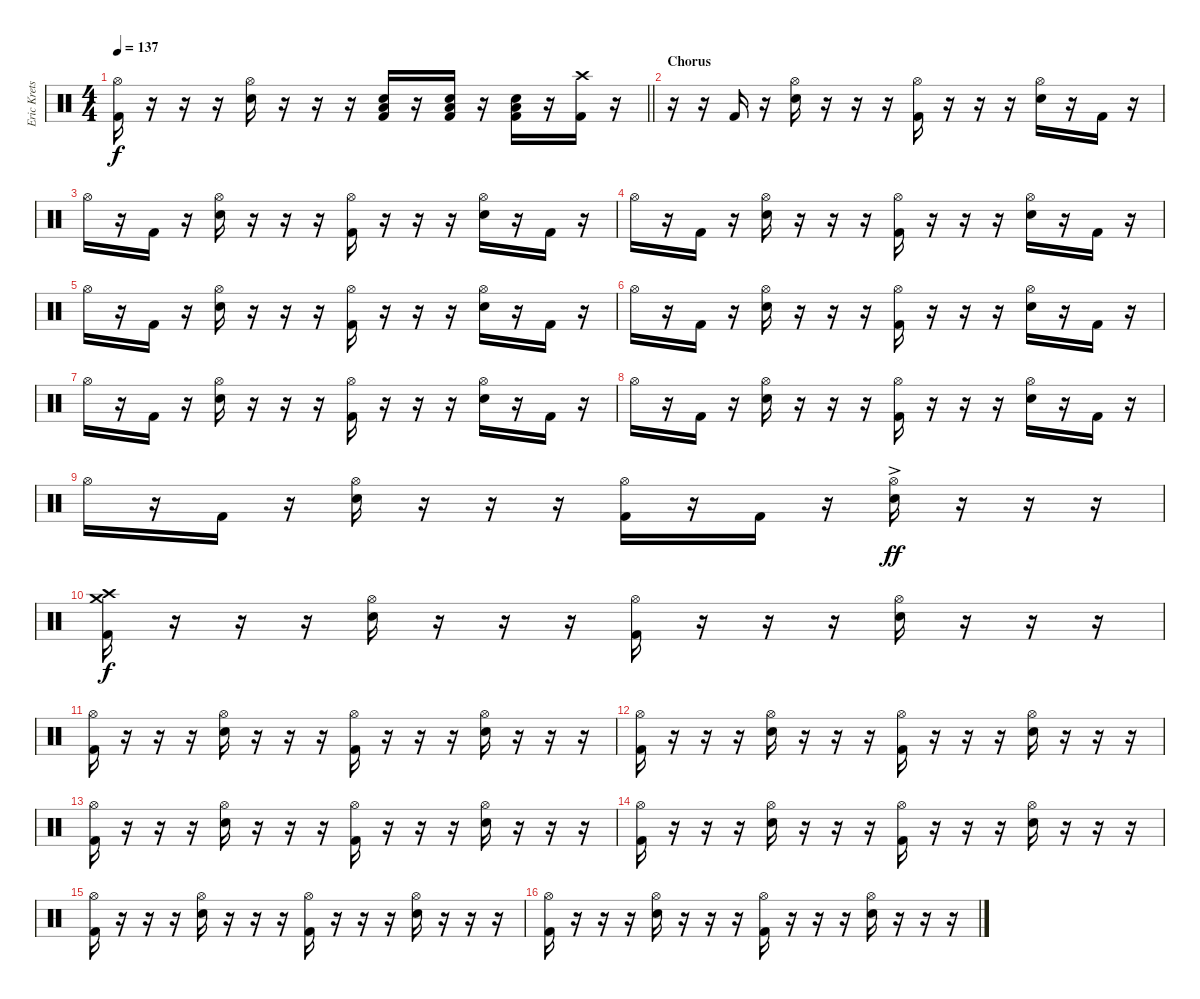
\track ("Eric Krets" "Eric Krets") {instrument percussion}
\staff {score}
\articulation defaults
\ts (4 4)
\tempo 137
\clef neutral
\barLineRight lightlight
\ks c
("Hi-Hat (open)" "Kick (hit) 2").16{dy f} r.16 r.16 r.16 ("Hi-Hat (open)" "Electric Snare (hit)").16 r.16 r.16 r.16 ("Low Tom (hit)" "Electric Snare (hit)" "Kick (hit) 2").16 r.16 ("Low Tom (hit)" "Electric Snare (hit)" "Kick (hit) 2").16 r.16 ("Low Tom (hit)" "Electric Snare (hit)" "Kick (hit) 2").16 r.16 ("Crash high (hit)" "Kick (hit) 2").16 r.16 |
\section ("" "Chorus")
r.16 r.16 "Kick (hit) 2".16 r.16 ("Hi-Hat (open)" "Electric Snare (hit)").16 r.16 r.16 r.16 ("Hi-Hat (open)" "Kick (hit) 2").16 r.16 r.16 r.16 ("Hi-Hat (open)" "Electric Snare (hit)").16 r.16 "Kick (hit) 2".16 r.16 |
"Hi-Hat (open)".16 r.16 "Kick (hit) 2".16 r.16 ("Hi-Hat (open)" "Electric Snare (hit)").16 r.16 r.16 r.16 ("Hi-Hat (open)" "Kick (hit) 2").16 r.16 r.16 r.16 ("Hi-Hat (open)" "Electric Snare (hit)").16 r.16 "Kick (hit) 2".16 r.16 |
"Hi-Hat (open)".16 r.16 "Kick (hit) 2".16 r.16 ("Hi-Hat (open)" "Electric Snare (hit)").16 r.16 r.16 r.16 ("Hi-Hat (open)" "Kick (hit) 2").16 r.16 r.16 r.16 ("Hi-Hat (open)" "Electric Snare (hit)").16 r.16 "Kick (hit) 2".16 r.16 |
"Hi-Hat (open)".16 r.16 "Kick (hit) 2".16 r.16 ("Hi-Hat (open)" "Electric Snare (hit)").16 r.16 r.16 r.16 ("Hi-Hat (open)" "Kick (hit) 2").16 r.16 r.16 r.16 ("Hi-Hat (open)" "Electric Snare (hit)").16 r.16 "Kick (hit) 2".16 r.16 |
"Hi-Hat (open)".16 r.16 "Kick (hit) 2".16 r.16 ("Hi-Hat (open)" "Electric Snare (hit)").16 r.16 r.16 r.16 ("Hi-Hat (open)" "Kick (hit) 2").16 r.16 r.16 r.16 ("Hi-Hat (open)" "Electric Snare (hit)").16 r.16 "Kick (hit) 2".16 r.16 |
"Hi-Hat (open)".16 r.16 "Kick (hit) 2".16 r.16 ("Hi-Hat (open)" "Electric Snare (hit)").16 r.16 r.16 r.16 ("Hi-Hat (open)" "Kick (hit) 2").16 r.16 r.16 r.16 ("Hi-Hat (open)" "Electric Snare (hit)").16 r.16 "Kick (hit) 2".16 r.16 |
"Hi-Hat (open)".16 r.16 "Kick (hit) 2".16 r.16 ("Hi-Hat (open)" "Electric Snare (hit)").16 r.16 r.16 r.16 ("Hi-Hat (open)" "Kick (hit) 2").16 r.16 r.16 r.16 ("Hi-Hat (open)" "Electric Snare (hit)").16 r.16 "Kick (hit) 2".16 r.16 |
"Hi-Hat (open)".16 r.16 "Kick (hit) 2".16 r.16 ("Hi-Hat (open)" "Electric Snare (hit)").16 r.16 r.16 r.16 ("Hi-Hat (open)" "Kick (hit) 2").16 r.16 "Kick (hit) 2".16 r.16 ("Hi-Hat (open)" "Electric Snare (hit)"{ac}).16{dy ff} r.16 r.16 r.16 |
("Crash high (hit)" "Crash medium (hit)" "Kick (hit) 2").16{dy f} r.16 r.16 r.16 ("Hi-Hat (open)" "Electric Snare (hit)").16 r.16 r.16 r.16 ("Hi-Hat (open)" "Kick (hit) 2").16 r.16 r.16 r.16 ("Hi-Hat (open)" "Electric Snare (hit)").16 r.16 r.16 r.16 |
("Hi-Hat (open)" "Kick (hit) 2").16 r.16 r.16 r.16 ("Hi-Hat (open)" "Electric Snare (hit)").16 r.16 r.16 r.16 ("Hi-Hat (open)" "Kick (hit) 2").16 r.16 r.16 r.16 ("Hi-Hat (open)" "Electric Snare (hit)").16 r.16 r.16 r.16 |
("Hi-Hat (open)" "Kick (hit) 2").16 r.16 r.16 r.16 ("Hi-Hat (open)" "Electric Snare (hit)").16 r.16 r.16 r.16 ("Hi-Hat (open)" "Kick (hit) 2").16 r.16 r.16 r.16 ("Hi-Hat (open)" "Electric Snare (hit)").16 r.16 r.16 r.16 |
("Hi-Hat (open)" "Kick (hit) 2").16 r.16 r.16 r.16 ("Hi-Hat (open)" "Electric Snare (hit)").16 r.16 r.16 r.16 ("Hi-Hat (open)" "Kick (hit) 2").16 r.16 r.16 r.16 ("Hi-Hat (open)" "Electric Snare (hit)").16 r.16 r.16 r.16 |
("Hi-Hat (open)" "Kick (hit) 2").16 r.16 r.16 r.16 ("Hi-Hat (open)" "Electric Snare (hit)").16 r.16 r.16 r.16 ("Hi-Hat (open)" "Kick (hit) 2").16 r.16 r.16 r.16 ("Hi-Hat (open)" "Electric Snare (hit)").16 r.16 r.16 r.16 |
("Hi-Hat (open)" "Kick (hit) 2").16 r.16 r.16 r.16 ("Hi-Hat (open)" "Electric Snare (hit)").16 r.16 r.16 r.16 ("Hi-Hat (open)" "Kick (hit) 2").16 r.16 r.16 r.16 ("Hi-Hat (open)" "Electric Snare (hit)").16 r.16 r.16 r.16 |
("Hi-Hat (open)" "Kick (hit) 2").16 r.16 r.16 r.16 ("Hi-Hat (open)" "Electric Snare (hit)").16 r.16 r.16 r.16 ("Hi-Hat (open)" "Kick (hit) 2").16 r.16 r.16 r.16 ("Hi-Hat (open)" "Electric Snare (hit)").16 r.16 r.16 r.16
